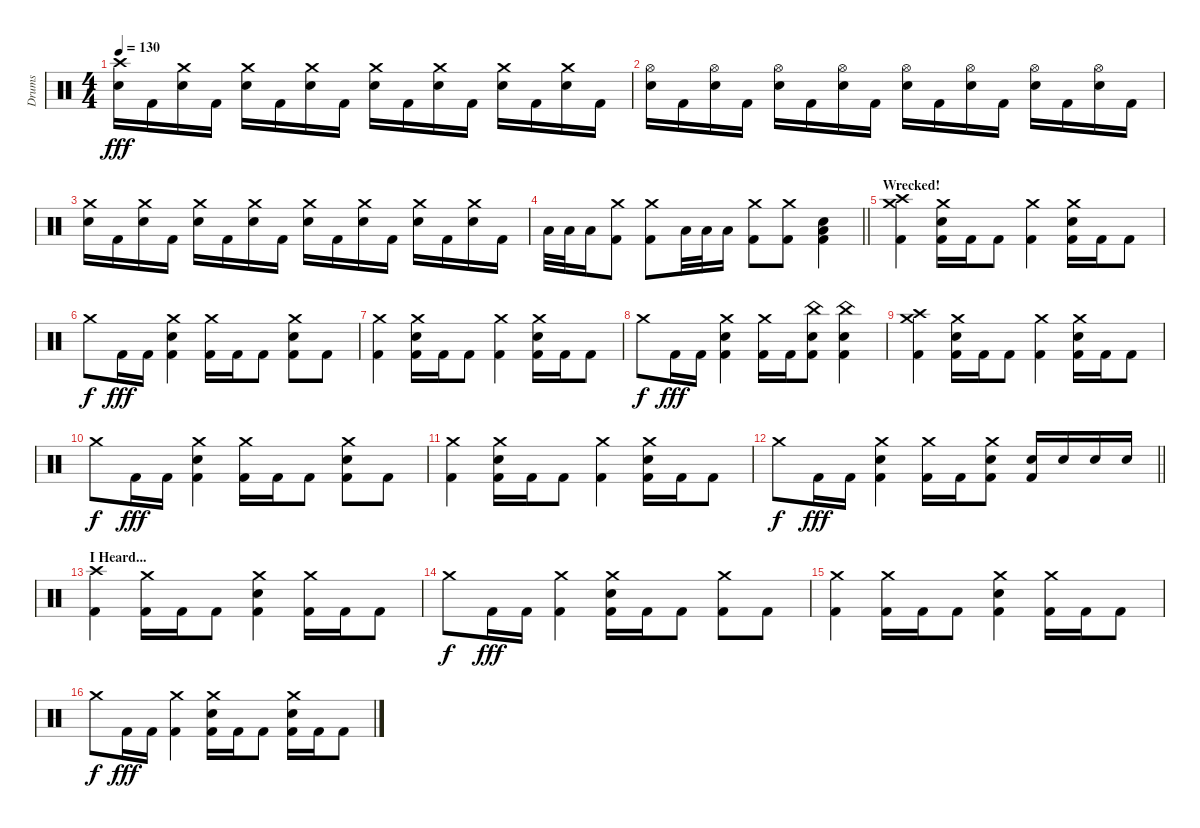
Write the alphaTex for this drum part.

\track ("Drums" "Drums") {instrument percussion}
\staff {score}
\articulation defaults
\ts (4 4)
\tempo 130
\clef neutral
\ks c
("Crash high (hit)" "Snare (hit) 2").16{dy fff} "Kick (hit) 2".16 ("Crash medium (hit)" "Snare (hit) 2").16 "Kick (hit) 2".16 ("Crash medium (hit)" "Snare (hit) 2").16 "Kick (hit) 2".16 ("Crash medium (hit)" "Snare (hit) 2").16 "Kick (hit) 2".16 ("Crash medium (hit)" "Snare (hit) 2").16 "Kick (hit) 2".16 ("Crash medium (hit)" "Snare (hit) 2").16 "Kick (hit) 2".16 ("Crash medium (hit)" "Snare (hit) 2").16 "Kick (hit) 2".16 ("Crash medium (hit)" "Snare (hit) 2").16 "Kick (hit) 2".16 |
("Hi-Hat (open)" "Snare (hit) 2").16 "Kick (hit) 2".16 ("Hi-Hat (open)" "Snare (hit) 2").16 "Kick (hit) 2".16 ("Hi-Hat (open)" "Snare (hit) 2").16 "Kick (hit) 2".16 ("Hi-Hat (open)" "Snare (hit) 2").16 "Kick (hit) 2".16 ("Hi-Hat (open)" "Snare (hit) 2").16 "Kick (hit) 2".16 ("Hi-Hat (open)" "Snare (hit) 2").16 "Kick (hit) 2".16 ("Hi-Hat (open)" "Snare (hit) 2").16 "Kick (hit) 2".16 ("Hi-Hat (open)" "Snare (hit) 2").16 "Kick (hit) 2".16 |
("Crash medium (hit)" "Snare (hit) 2").16 "Kick (hit) 2".16 ("Crash medium (hit)" "Snare (hit) 2").16 "Kick (hit) 2".16 ("Crash medium (hit)" "Snare (hit) 2").16 "Kick (hit) 2".16 ("Crash medium (hit)" "Snare (hit) 2").16 "Kick (hit) 2".16 ("Crash medium (hit)" "Snare (hit) 2").16 "Kick (hit) 2".16 ("Crash medium (hit)" "Snare (hit) 2").16 "Kick (hit) 2".16 ("Crash medium (hit)" "Snare (hit) 2").16 "Kick (hit) 2".16 ("Crash medium (hit)" "Snare (hit) 2").16 "Kick (hit) 2".16 |
\barLineRight lightlight "Low Tom (hit)".32 "Low Tom (hit)".32 "Low Tom (hit)".16
("Crash medium (hit)" "Kick (hit) 2").8 ("Crash medium (hit)" "Kick (hit) 2").8 "Low Tom (hit)".32 "Low Tom (hit)".32 "Low Tom (hit)".16 ("Crash medium (hit)" "Kick (hit) 2").8 ("Crash medium (hit)" "Kick (hit) 2").8 ("Low Floor Tom (hit)" "Snare (hit) 2" "Kick (hit) 2").4 |
\section ("" "Wrecked!")
("Crash high (hit)" "Crash medium (hit)" "Kick (hit) 2").4 ("Crash medium (hit)" "Snare (hit) 2" "Kick (hit) 2").16 "Kick (hit) 2".16 "Kick (hit) 2".8 ("Crash medium (hit)" "Kick (hit) 2").4 ("Crash medium (hit)" "Snare (hit) 2" "Kick (hit) 2").16 "Kick (hit) 2".16 "Kick (hit) 2".8 |
"Crash medium (hit)".8{dy f} "Kick (hit) 2".16{dy fff} "Kick (hit) 2".16 ("Crash medium (hit)" "Snare (hit) 2" "Kick (hit) 2").4 ("Crash medium (hit)" "Kick (hit) 2").16 "Kick (hit) 2".16 "Kick (hit) 2".8 ("Crash medium (hit)" "Snare (hit) 2" "Kick (hit) 2").8 "Kick (hit) 2".8 |
("Crash medium (hit)" "Kick (hit) 2").4 ("Crash medium (hit)" "Snare (hit) 2" "Kick (hit) 2").16 "Kick (hit) 2".16 "Kick (hit) 2".8 ("Crash medium (hit)" "Kick (hit) 2").4 ("Crash medium (hit)" "Snare (hit) 2" "Kick (hit) 2").16 "Kick (hit) 2".16 "Kick (hit) 2".8 |
"Crash medium (hit)".8{dy f} "Kick (hit) 2".16{dy fff} "Kick (hit) 2".16 ("Crash medium (hit)" "Snare (hit) 2" "Kick (hit) 2").4 ("Crash medium (hit)" "Kick (hit) 2").16 "Kick (hit) 2".16 ("China (hit)" "Snare (hit) 2" "Kick (hit) 2").8 ("China (hit)" "Snare (hit) 2" "Kick (hit) 2").4 |
("Crash high (hit)" "Crash medium (hit)" "Kick (hit) 2").4 ("Crash medium (hit)" "Snare (hit) 2" "Kick (hit) 2").16 "Kick (hit) 2".16 "Kick (hit) 2".8 ("Crash medium (hit)" "Kick (hit) 2").4 ("Crash medium (hit)" "Snare (hit) 2" "Kick (hit) 2").16 "Kick (hit) 2".16 "Kick (hit) 2".8 |
"Crash medium (hit)".8{dy f} "Kick (hit) 2".16{dy fff} "Kick (hit) 2".16 ("Crash medium (hit)" "Snare (hit) 2" "Kick (hit) 2").4 ("Crash medium (hit)" "Kick (hit) 2").16 "Kick (hit) 2".16 "Kick (hit) 2".8 ("Crash medium (hit)" "Snare (hit) 2" "Kick (hit) 2").8 "Kick (hit) 2".8 |
("Crash medium (hit)" "Kick (hit) 2").4 ("Crash medium (hit)" "Snare (hit) 2" "Kick (hit) 2").16 "Kick (hit) 2".16 "Kick (hit) 2".8 ("Crash medium (hit)" "Kick (hit) 2").4 ("Crash medium (hit)" "Snare (hit) 2" "Kick (hit) 2").16 "Kick (hit) 2".16 "Kick (hit) 2".8 |
\barLineRight lightlight "Crash medium (hit)".8{dy f} "Kick (hit) 2".16{dy fff} "Kick (hit) 2".16
("Crash medium (hit)" "Snare (hit) 2" "Kick (hit) 2").4 ("Crash medium (hit)" "Kick (hit) 2").16 "Kick (hit) 2".16 ("Crash medium (hit)" "Snare (hit) 2" "Kick (hit) 2").8 ("Snare (hit) 2" "Kick (hit) 2").16 "Snare (hit) 2".16 "Snare (hit) 2".16 "Snare (hit) 2".16 |
\section ("" "I Heard...")
("Crash high (hit)" "Kick (hit) 2").4 ("Crash medium (hit)" "Kick (hit) 2").16 "Kick (hit) 2".16 "Kick (hit) 2".8 ("Crash medium (hit)" "Snare (hit) 2" "Kick (hit) 2").4 ("Crash medium (hit)" "Kick (hit) 2").16 "Kick (hit) 2".16 "Kick (hit) 2".8 |
"Crash medium (hit)".8{dy f} "Kick (hit) 2".16{dy fff} "Kick (hit) 2".16 ("Crash medium (hit)" "Kick (hit) 2").4 ("Crash medium (hit)" "Snare (hit) 2" "Kick (hit) 2").16 "Kick (hit) 2".16 "Kick (hit) 2".8 ("Crash medium (hit)" "Kick (hit) 2").8 "Kick (hit) 2".8 |
("Crash medium (hit)" "Kick (hit) 2").4 ("Crash medium (hit)" "Kick (hit) 2").16 "Kick (hit) 2".16 "Kick (hit) 2".8 ("Crash medium (hit)" "Snare (hit) 2" "Kick (hit) 2").4 ("Crash medium (hit)" "Kick (hit) 2").16 "Kick (hit) 2".16 "Kick (hit) 2".8 |
"Crash medium (hit)".8{dy f} "Kick (hit) 2".16{dy fff} "Kick (hit) 2".16 ("Crash medium (hit)" "Kick (hit) 2").4 ("Crash medium (hit)" "Snare (hit) 2" "Kick (hit) 2").16 "Kick (hit) 2".16 "Kick (hit) 2".8 ("Crash medium (hit)" "Snare (hit) 2" "Kick (hit) 2").16 "Kick (hit) 2".16 "Kick (hit) 2".8
